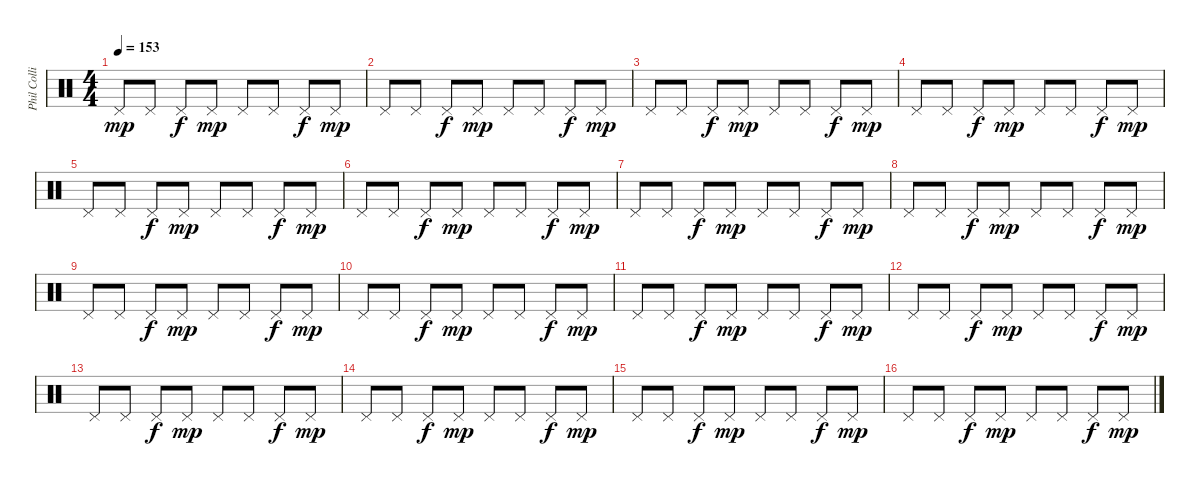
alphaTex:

\track ("Phil Collins (drums)" "Phil Colli") {instrument percussion}
\staff {score}
\articulation defaults
\ts (4 4)
\tempo 153
\clef neutral
\ks c "Pedal Hi-Hat (hit)".8{dy mp} "Pedal Hi-Hat (hit)".8 "Pedal Hi-Hat (hit)".8{dy f} "Pedal Hi-Hat (hit)".8{dy mp} "Pedal Hi-Hat (hit)".8 "Pedal Hi-Hat (hit)".8 "Pedal Hi-Hat (hit)".8{dy f} "Pedal Hi-Hat (hit)".8{dy mp}
|
"Pedal Hi-Hat (hit)".8 "Pedal Hi-Hat (hit)".8 "Pedal Hi-Hat (hit)".8{dy f} "Pedal Hi-Hat (hit)".8{dy mp} "Pedal Hi-Hat (hit)".8 "Pedal Hi-Hat (hit)".8 "Pedal Hi-Hat (hit)".8{dy f} "Pedal Hi-Hat (hit)".8{dy mp} |
"Pedal Hi-Hat (hit)".8 "Pedal Hi-Hat (hit)".8 "Pedal Hi-Hat (hit)".8{dy f} "Pedal Hi-Hat (hit)".8{dy mp} "Pedal Hi-Hat (hit)".8 "Pedal Hi-Hat (hit)".8 "Pedal Hi-Hat (hit)".8{dy f} "Pedal Hi-Hat (hit)".8{dy mp} |
"Pedal Hi-Hat (hit)".8 "Pedal Hi-Hat (hit)".8 "Pedal Hi-Hat (hit)".8{dy f} "Pedal Hi-Hat (hit)".8{dy mp} "Pedal Hi-Hat (hit)".8 "Pedal Hi-Hat (hit)".8 "Pedal Hi-Hat (hit)".8{dy f} "Pedal Hi-Hat (hit)".8{dy mp} |
"Pedal Hi-Hat (hit)".8 "Pedal Hi-Hat (hit)".8 "Pedal Hi-Hat (hit)".8{dy f} "Pedal Hi-Hat (hit)".8{dy mp} "Pedal Hi-Hat (hit)".8 "Pedal Hi-Hat (hit)".8 "Pedal Hi-Hat (hit)".8{dy f} "Pedal Hi-Hat (hit)".8{dy mp} |
"Pedal Hi-Hat (hit)".8 "Pedal Hi-Hat (hit)".8 "Pedal Hi-Hat (hit)".8{dy f} "Pedal Hi-Hat (hit)".8{dy mp} "Pedal Hi-Hat (hit)".8 "Pedal Hi-Hat (hit)".8 "Pedal Hi-Hat (hit)".8{dy f} "Pedal Hi-Hat (hit)".8{dy mp} |
"Pedal Hi-Hat (hit)".8 "Pedal Hi-Hat (hit)".8 "Pedal Hi-Hat (hit)".8{dy f} "Pedal Hi-Hat (hit)".8{dy mp} "Pedal Hi-Hat (hit)".8 "Pedal Hi-Hat (hit)".8 "Pedal Hi-Hat (hit)".8{dy f} "Pedal Hi-Hat (hit)".8{dy mp} |
"Pedal Hi-Hat (hit)".8 "Pedal Hi-Hat (hit)".8 "Pedal Hi-Hat (hit)".8{dy f} "Pedal Hi-Hat (hit)".8{dy mp} "Pedal Hi-Hat (hit)".8 "Pedal Hi-Hat (hit)".8 "Pedal Hi-Hat (hit)".8{dy f} "Pedal Hi-Hat (hit)".8{dy mp} |
"Pedal Hi-Hat (hit)".8 "Pedal Hi-Hat (hit)".8 "Pedal Hi-Hat (hit)".8{dy f} "Pedal Hi-Hat (hit)".8{dy mp} "Pedal Hi-Hat (hit)".8 "Pedal Hi-Hat (hit)".8 "Pedal Hi-Hat (hit)".8{dy f} "Pedal Hi-Hat (hit)".8{dy mp} |
"Pedal Hi-Hat (hit)".8 "Pedal Hi-Hat (hit)".8 "Pedal Hi-Hat (hit)".8{dy f} "Pedal Hi-Hat (hit)".8{dy mp} "Pedal Hi-Hat (hit)".8 "Pedal Hi-Hat (hit)".8 "Pedal Hi-Hat (hit)".8{dy f} "Pedal Hi-Hat (hit)".8{dy mp} |
"Pedal Hi-Hat (hit)".8 "Pedal Hi-Hat (hit)".8 "Pedal Hi-Hat (hit)".8{dy f} "Pedal Hi-Hat (hit)".8{dy mp} "Pedal Hi-Hat (hit)".8 "Pedal Hi-Hat (hit)".8 "Pedal Hi-Hat (hit)".8{dy f} "Pedal Hi-Hat (hit)".8{dy mp} |
"Pedal Hi-Hat (hit)".8 "Pedal Hi-Hat (hit)".8 "Pedal Hi-Hat (hit)".8{dy f} "Pedal Hi-Hat (hit)".8{dy mp} "Pedal Hi-Hat (hit)".8 "Pedal Hi-Hat (hit)".8 "Pedal Hi-Hat (hit)".8{dy f} "Pedal Hi-Hat (hit)".8{dy mp} |
"Pedal Hi-Hat (hit)".8 "Pedal Hi-Hat (hit)".8 "Pedal Hi-Hat (hit)".8{dy f} "Pedal Hi-Hat (hit)".8{dy mp} "Pedal Hi-Hat (hit)".8 "Pedal Hi-Hat (hit)".8 "Pedal Hi-Hat (hit)".8{dy f} "Pedal Hi-Hat (hit)".8{dy mp} |
"Pedal Hi-Hat (hit)".8 "Pedal Hi-Hat (hit)".8 "Pedal Hi-Hat (hit)".8{dy f} "Pedal Hi-Hat (hit)".8{dy mp} "Pedal Hi-Hat (hit)".8 "Pedal Hi-Hat (hit)".8 "Pedal Hi-Hat (hit)".8{dy f} "Pedal Hi-Hat (hit)".8{dy mp} |
"Pedal Hi-Hat (hit)".8 "Pedal Hi-Hat (hit)".8 "Pedal Hi-Hat (hit)".8{dy f} "Pedal Hi-Hat (hit)".8{dy mp} "Pedal Hi-Hat (hit)".8 "Pedal Hi-Hat (hit)".8 "Pedal Hi-Hat (hit)".8{dy f} "Pedal Hi-Hat (hit)".8{dy mp} |
"Pedal Hi-Hat (hit)".8 "Pedal Hi-Hat (hit)".8 "Pedal Hi-Hat (hit)".8{dy f} "Pedal Hi-Hat (hit)".8{dy mp} "Pedal Hi-Hat (hit)".8 "Pedal Hi-Hat (hit)".8 "Pedal Hi-Hat (hit)".8{dy f} "Pedal Hi-Hat (hit)".8{dy mp}
